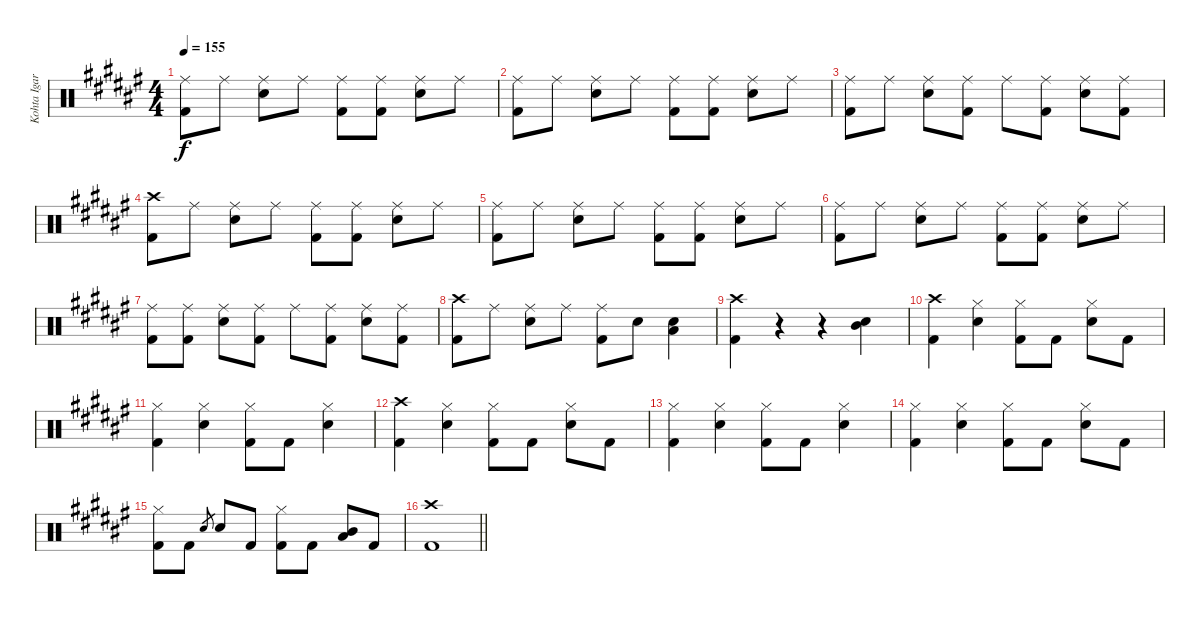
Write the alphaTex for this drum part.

\track ("Kohta Igarashi" "Kohta Igar") {instrument percussion}
\staff {score}
\articulation defaults
\ts (4 4)
\tempo 155
\clef neutral
\ks f#
("Ride (middle)" "Kick (hit) 2").8{dy f} "Ride (middle)".8 ("Ride (middle)" "Electric Snare (hit)").8 "Ride (middle)".8 ("Ride (middle)" "Kick (hit) 2").8 ("Ride (middle)" "Kick (hit) 2").8 ("Ride (middle)" "Electric Snare (hit)").8 "Ride (middle)".8 |
("Ride (middle)" "Kick (hit) 2").8 "Ride (middle)".8 ("Ride (middle)" "Electric Snare (hit)").8 "Ride (middle)".8 ("Ride (middle)" "Kick (hit) 2").8 ("Ride (middle)" "Kick (hit) 2").8 ("Ride (middle)" "Electric Snare (hit)").8 "Ride (middle)".8 |
("Ride (middle)" "Kick (hit) 2").8 "Ride (middle)".8 ("Ride (middle)" "Electric Snare (hit)").8 ("Ride (middle)" "Kick (hit) 2").8 "Ride (middle)".8 ("Ride (middle)" "Kick (hit) 2").8 ("Ride (middle)" "Electric Snare (hit)").8 ("Ride (middle)" "Kick (hit) 2").8 |
("Crash high (hit)" "Kick (hit) 2").8 "Ride (middle)".8 ("Ride (middle)" "Electric Snare (hit)").8 "Ride (middle)".8 ("Ride (middle)" "Kick (hit) 2").8 ("Ride (middle)" "Kick (hit) 2").8 ("Ride (middle)" "Electric Snare (hit)").8 "Ride (middle)".8 |
("Ride (middle)" "Kick (hit) 2").8 "Ride (middle)".8 ("Ride (middle)" "Electric Snare (hit)").8 "Ride (middle)".8 ("Ride (middle)" "Kick (hit) 2").8 ("Ride (middle)" "Kick (hit) 2").8 ("Ride (middle)" "Electric Snare (hit)").8 "Ride (middle)".8 |
("Ride (middle)" "Kick (hit) 2").8 "Ride (middle)".8 ("Ride (middle)" "Electric Snare (hit)").8 "Ride (middle)".8 ("Ride (middle)" "Kick (hit) 2").8 ("Ride (middle)" "Kick (hit) 2").8 ("Ride (middle)" "Electric Snare (hit)").8 "Ride (middle)".8 |
("Ride (middle)" "Kick (hit) 2").8 ("Ride (middle)" "Kick (hit) 2").8 ("Ride (middle)" "Electric Snare (hit)").8 ("Ride (middle)" "Kick (hit) 2").8 "Ride (middle)".8 ("Ride (middle)" "Kick (hit) 2").8 ("Ride (middle)" "Electric Snare (hit)").8 ("Ride (middle)" "Kick (hit) 2").8 |
("Crash high (hit)" "Kick (hit) 2").8 "Ride (middle)".8 ("Ride (middle)" "Electric Snare (hit)").8 "Ride (middle)".8 ("Ride (middle)" "Kick (hit) 2").8 "Electric Snare (hit)".8 ("Low Floor Tom (hit)" "Electric Snare (hit)").4 |
("Crash high (hit)" "Kick (hit) 2").4 r.4 r.4 ("Mid Tom (hit)" "Electric Snare (hit)").4 |
("Crash high (hit)" "Kick (hit) 2").4 ("Hi-Hat (closed)" "Electric Snare (hit)").4 ("Hi-Hat (closed)" "Kick (hit) 2").8 "Kick (hit) 2".8 ("Hi-Hat (closed)" "Electric Snare (hit)").8 "Kick (hit) 2".8 |
("Hi-Hat (closed)" "Kick (hit) 2").4 ("Hi-Hat (closed)" "Electric Snare (hit)").4 ("Hi-Hat (closed)" "Kick (hit) 2").8 "Kick (hit) 2".8 ("Hi-Hat (closed)" "Electric Snare (hit)").4 |
("Crash high (hit)" "Kick (hit) 2").4 ("Hi-Hat (closed)" "Electric Snare (hit)").4 ("Hi-Hat (closed)" "Kick (hit) 2").8 "Kick (hit) 2".8 ("Hi-Hat (closed)" "Electric Snare (hit)").8 "Kick (hit) 2".8 |
("Hi-Hat (closed)" "Kick (hit) 2").4 ("Hi-Hat (closed)" "Electric Snare (hit)").4 ("Hi-Hat (closed)" "Kick (hit) 2").8 "Kick (hit) 2".8 ("Hi-Hat (closed)" "Electric Snare (hit)").4 |
("Hi-Hat (closed)" "Kick (hit) 2").4 ("Hi-Hat (closed)" "Electric Snare (hit)").4 ("Hi-Hat (closed)" "Kick (hit) 2").8 "Kick (hit) 2".8 ("Hi-Hat (closed)" "Electric Snare (hit)").8 "Kick (hit) 2".8 |
("Hi-Hat (closed)" "Kick (hit) 2").8 "Kick (hit) 2".8 "Electric Snare (hit)".8{gr} "Electric Snare (hit)".8 "Kick (hit) 2".8 ("Hi-Hat (closed)" "Kick (hit) 2").8 "Kick (hit) 2".8 ("Mid Tom (hit)" "Low Floor Tom (hit)").8 "Kick (hit) 2".8 |
\barLineRight lightlight
("Crash high (hit)" "Kick (hit) 2").1
